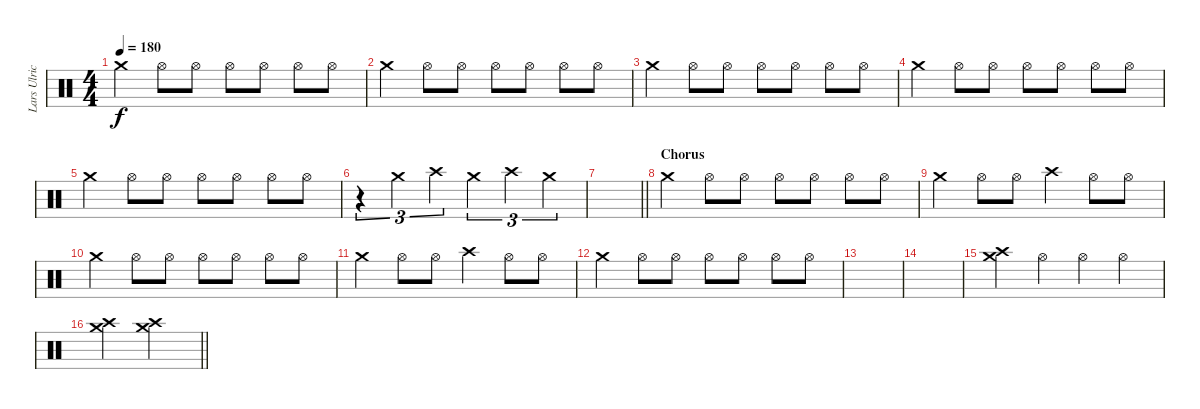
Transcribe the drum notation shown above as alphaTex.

\track ("Lars Ulrich" "Lars Ulric") {instrument percussion}
\staff {score}
\articulation defaults
\ts (4 4)
\tempo 180
\clef neutral
\ks c "Crash medium (hit)".4{dy f} "Hi-Hat (open)".8 "Hi-Hat (open)".8 "Hi-Hat (open)".8 "Hi-Hat (open)".8 "Hi-Hat (open)".8 "Hi-Hat (open)".8
|
"Crash medium (hit)".4 "Hi-Hat (open)".8 "Hi-Hat (open)".8 "Hi-Hat (open)".8 "Hi-Hat (open)".8 "Hi-Hat (open)".8 "Hi-Hat (open)".8 |
"Crash medium (hit)".4 "Hi-Hat (open)".8 "Hi-Hat (open)".8 "Hi-Hat (open)".8 "Hi-Hat (open)".8 "Hi-Hat (open)".8 "Hi-Hat (open)".8 |
"Crash medium (hit)".4 "Hi-Hat (open)".8 "Hi-Hat (open)".8 "Hi-Hat (open)".8 "Hi-Hat (open)".8 "Hi-Hat (open)".8 "Hi-Hat (open)".8 |
"Crash medium (hit)".4 "Hi-Hat (open)".8 "Hi-Hat (open)".8 "Hi-Hat (open)".8 "Hi-Hat (open)".8 "Hi-Hat (open)".8 "Hi-Hat (open)".8 |
r.4{tu (3 2)} "Crash medium (hit)".4{tu (3 2)} "Crash high (hit)".4{tu (3 2)} "Crash medium (hit)".4{tu (3 2)} "Crash high (hit)".4{tu (3 2)} "Crash medium (hit)".4{tu (3 2)} |
\barLineRight lightlight
|
\section ("" "Chorus")
"Crash medium (hit)".4 "Hi-Hat (open)".8 "Hi-Hat (open)".8 "Hi-Hat (open)".8 "Hi-Hat (open)".8 "Hi-Hat (open)".8 "Hi-Hat (open)".8 |
"Crash medium (hit)".4 "Hi-Hat (open)".8 "Hi-Hat (open)".8 "Crash high (hit)".4 "Hi-Hat (open)".8 "Hi-Hat (open)".8 |
"Crash medium (hit)".4 "Hi-Hat (open)".8 "Hi-Hat (open)".8 "Hi-Hat (open)".8 "Hi-Hat (open)".8 "Hi-Hat (open)".8 "Hi-Hat (open)".8 |
"Crash medium (hit)".4 "Hi-Hat (open)".8 "Hi-Hat (open)".8 "Crash high (hit)".4 "Hi-Hat (open)".8 "Hi-Hat (open)".8 |
"Crash medium (hit)".4 "Hi-Hat (open)".8 "Hi-Hat (open)".8 "Hi-Hat (open)".8 "Hi-Hat (open)".8 "Hi-Hat (open)".8 "Hi-Hat (open)".8 |
|
|
("Crash medium (hit)" "Crash high (hit)").4 "Hi-Hat (open)".4 "Hi-Hat (open)".4 "Hi-Hat (open)".4 |
\barLineRight lightlight
("Crash medium (hit)" "Crash high (hit)").2 ("Crash medium (hit)" "Crash high (hit)").2
